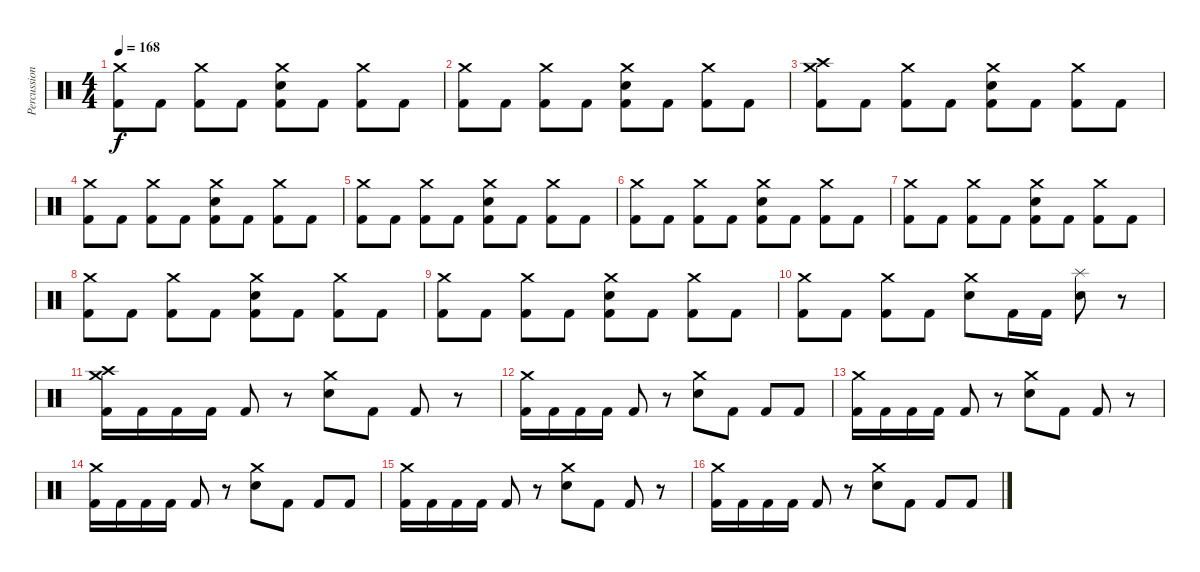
\track ("Percussion" "Percussion") {instrument percussion}
\staff {score}
\articulation defaults
\ts (4 4)
\tempo 168
\clef neutral
\ks c
("Crash medium (hit)" "Kick (hit) 2").8{dy f} "Kick (hit) 2".8 ("Crash medium (hit)" "Kick (hit) 2").8 "Kick (hit) 2".8 ("Crash medium (hit)" "Snare (hit) 2" "Kick (hit) 2").8 "Kick (hit) 2".8 ("Crash medium (hit)" "Kick (hit) 2").8 "Kick (hit) 2".8 |
("Crash medium (hit)" "Kick (hit) 2").8 "Kick (hit) 2".8 ("Crash medium (hit)" "Kick (hit) 2").8 "Kick (hit) 2".8 ("Crash medium (hit)" "Snare (hit) 2" "Kick (hit) 2").8 "Kick (hit) 2".8 ("Crash medium (hit)" "Kick (hit) 2").8 "Kick (hit) 2".8 |
("Crash high (hit)" "Crash medium (hit)" "Kick (hit) 2").8 "Kick (hit) 2".8 ("Crash medium (hit)" "Kick (hit) 2").8 "Kick (hit) 2".8 ("Crash medium (hit)" "Snare (hit) 2" "Kick (hit) 2").8 "Kick (hit) 2".8 ("Crash medium (hit)" "Kick (hit) 2").8 "Kick (hit) 2".8 |
("Crash medium (hit)" "Kick (hit) 2").8 "Kick (hit) 2".8 ("Crash medium (hit)" "Kick (hit) 2").8 "Kick (hit) 2".8 ("Crash medium (hit)" "Snare (hit) 2" "Kick (hit) 2").8 "Kick (hit) 2".8 ("Crash medium (hit)" "Kick (hit) 2").8 "Kick (hit) 2".8 |
("Crash medium (hit)" "Kick (hit) 2").8 "Kick (hit) 2".8 ("Crash medium (hit)" "Kick (hit) 2").8 "Kick (hit) 2".8 ("Crash medium (hit)" "Snare (hit) 2" "Kick (hit) 2").8 "Kick (hit) 2".8 ("Crash medium (hit)" "Kick (hit) 2").8 "Kick (hit) 2".8 |
("Crash medium (hit)" "Kick (hit) 2").8 "Kick (hit) 2".8 ("Crash medium (hit)" "Kick (hit) 2").8 "Kick (hit) 2".8 ("Crash medium (hit)" "Snare (hit) 2" "Kick (hit) 2").8 "Kick (hit) 2".8 ("Crash medium (hit)" "Kick (hit) 2").8 "Kick (hit) 2".8 |
("Crash medium (hit)" "Kick (hit) 2").8 "Kick (hit) 2".8 ("Crash medium (hit)" "Kick (hit) 2").8 "Kick (hit) 2".8 ("Crash medium (hit)" "Snare (hit) 2" "Kick (hit) 2").8 "Kick (hit) 2".8 ("Crash medium (hit)" "Kick (hit) 2").8 "Kick (hit) 2".8 |
("Crash medium (hit)" "Kick (hit) 2").8 "Kick (hit) 2".8 ("Crash medium (hit)" "Kick (hit) 2").8 "Kick (hit) 2".8 ("Crash medium (hit)" "Snare (hit) 2" "Kick (hit) 2").8 "Kick (hit) 2".8 ("Crash medium (hit)" "Kick (hit) 2").8 "Kick (hit) 2".8 |
("Crash medium (hit)" "Kick (hit) 2").8 "Kick (hit) 2".8 ("Crash medium (hit)" "Kick (hit) 2").8 "Kick (hit) 2".8 ("Crash medium (hit)" "Snare (hit) 2" "Kick (hit) 2").8 "Kick (hit) 2".8 ("Crash medium (hit)" "Kick (hit) 2").8 "Kick (hit) 2".8 |
("Crash medium (hit)" "Kick (hit) 2").8 "Kick (hit) 2".8 ("Crash medium (hit)" "Kick (hit) 2").8 "Kick (hit) 2".8 ("Crash medium (hit)" "Snare (hit) 2").8 "Kick (hit) 2".16 "Kick (hit) 2".16 ("Splash (hit)" "Snare (hit) 2").8 r.8 |
("Crash high (hit)" "Crash medium (hit)" "Kick (hit) 2").16 "Kick (hit) 2".16 "Kick (hit) 2".16 "Kick (hit) 2".16 "Kick (hit) 2".8 r.8 ("Crash medium (hit)" "Snare (hit) 2").8 "Kick (hit) 2".8 "Kick (hit) 2".8 r.8 |
("Crash medium (hit)" "Kick (hit) 2").16 "Kick (hit) 2".16 "Kick (hit) 2".16 "Kick (hit) 2".16 "Kick (hit) 2".8 r.8 ("Crash medium (hit)" "Snare (hit) 2").8 "Kick (hit) 2".8 "Kick (hit) 2".8 "Kick (hit) 2".8 |
("Crash medium (hit)" "Kick (hit) 2").16 "Kick (hit) 2".16 "Kick (hit) 2".16 "Kick (hit) 2".16 "Kick (hit) 2".8 r.8 ("Crash medium (hit)" "Snare (hit) 2").8 "Kick (hit) 2".8 "Kick (hit) 2".8 r.8 |
("Crash medium (hit)" "Kick (hit) 2").16 "Kick (hit) 2".16 "Kick (hit) 2".16 "Kick (hit) 2".16 "Kick (hit) 2".8 r.8 ("Crash medium (hit)" "Snare (hit) 2").8 "Kick (hit) 2".8 "Kick (hit) 2".8 "Kick (hit) 2".8 |
("Crash medium (hit)" "Kick (hit) 2").16 "Kick (hit) 2".16 "Kick (hit) 2".16 "Kick (hit) 2".16 "Kick (hit) 2".8 r.8 ("Crash medium (hit)" "Snare (hit) 2").8 "Kick (hit) 2".8 "Kick (hit) 2".8 r.8 |
("Crash medium (hit)" "Kick (hit) 2").16 "Kick (hit) 2".16 "Kick (hit) 2".16 "Kick (hit) 2".16 "Kick (hit) 2".8 r.8 ("Crash medium (hit)" "Snare (hit) 2").8 "Kick (hit) 2".8 "Kick (hit) 2".8 "Kick (hit) 2".8
